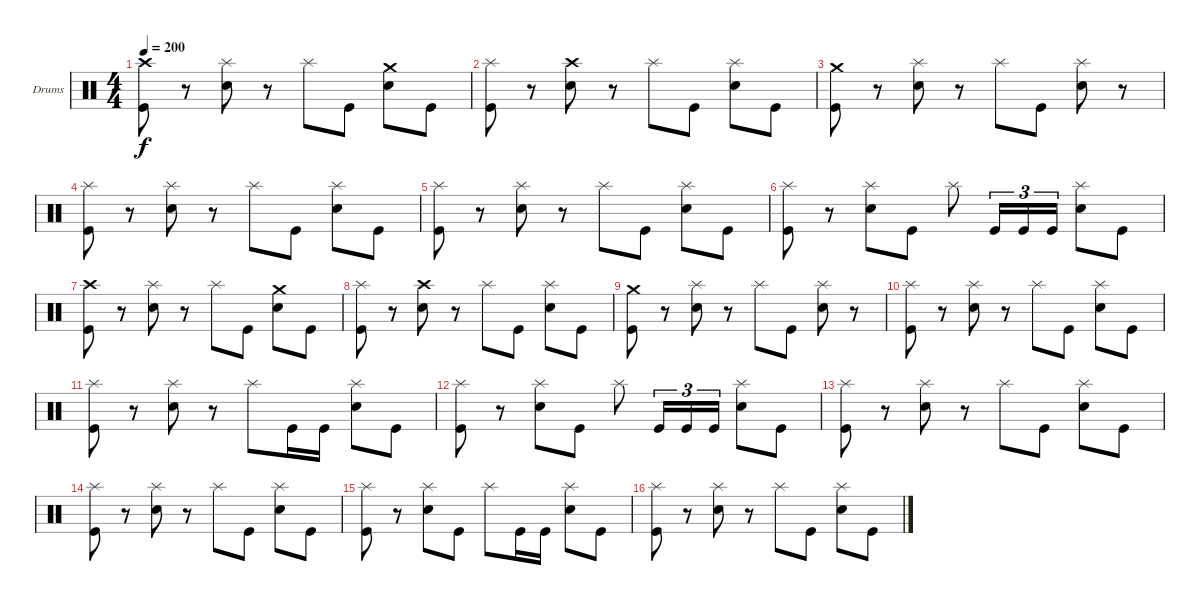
\bracketExtendMode groupsimilarinstruments
\firstSystemTrackNameOrientation horizontal
\otherSystemsTrackNameOrientation horizontal
\track ("Drumkit" "Drums") {instrument percussion}
\staff {score}
\articulation defaults
\ts (4 4)
\tempo 200
\clef neutral
\ks c
("Crash high (hit)" "Kick (hit)").8{dy f} r.8 ("Splash (hit)" "Snare (hit) 2").8 r.8 "Splash (hit)".8 "Kick (hit)".8 ("Crash medium (hit)" "Snare (hit) 2").8 "Kick (hit)".8 |
("Splash (hit)" "Kick (hit)").8 r.8 ("Crash high (hit)" "Snare (hit) 2").8 r.8 "Splash (hit)".8 "Kick (hit)".8 ("Splash (hit)" "Snare (hit) 2").8 "Kick (hit)".8 |
("Crash medium (hit)" "Kick (hit)").8 r.8 ("Splash (hit)" "Snare (hit) 2").8 r.8 "Splash (hit)".8 "Kick (hit)".8 ("Splash (hit)" "Snare (hit) 2").8 r.8 |
("Splash (hit)" "Kick (hit)").8 r.8 ("Splash (hit)" "Snare (hit) 2").8 r.8 "Splash (hit)".8 "Kick (hit)".8 ("Splash (hit)" "Snare (hit) 2").8 "Kick (hit)".8 |
("Splash (hit)" "Kick (hit)").8 r.8 ("Splash (hit)" "Snare (hit) 2").8 r.8 "Splash (hit)".8 "Kick (hit)".8 ("Splash (hit)" "Snare (hit) 2").8 "Kick (hit)".8 |
("Splash (hit)" "Kick (hit)").8 r.8 ("Splash (hit)" "Snare (hit) 2").8 "Kick (hit)".8 "Splash (hit)".8 "Kick (hit)".16{tu (3 2)} "Kick (hit)".16{tu (3 2)} "Kick (hit)".16{tu (3 2)} ("Splash (hit)" "Snare (hit) 2").8 "Kick (hit)".8 |
("Crash high (hit)" "Kick (hit)").8 r.8 ("Splash (hit)" "Snare (hit) 2").8 r.8 "Splash (hit)".8 "Kick (hit)".8 ("Crash medium (hit)" "Snare (hit) 2").8 "Kick (hit)".8 |
("Splash (hit)" "Kick (hit)").8 r.8 ("Crash high (hit)" "Snare (hit) 2").8 r.8 "Splash (hit)".8 "Kick (hit)".8 ("Splash (hit)" "Snare (hit) 2").8 "Kick (hit)".8 |
("Crash medium (hit)" "Kick (hit)").8 r.8 ("Splash (hit)" "Snare (hit) 2").8 r.8 "Splash (hit)".8 "Kick (hit)".8 ("Splash (hit)" "Snare (hit) 2").8 r.8 |
("Splash (hit)" "Kick (hit)").8 r.8 ("Splash (hit)" "Snare (hit) 2").8 r.8 "Splash (hit)".8 "Kick (hit)".8 ("Splash (hit)" "Snare (hit) 2").8 "Kick (hit)".8 |
("Splash (hit)" "Kick (hit)").8 r.8 ("Splash (hit)" "Snare (hit) 2").8 r.8 "Splash (hit)".8 "Kick (hit)".16 "Kick (hit)".16 ("Splash (hit)" "Snare (hit) 2").8 "Kick (hit)".8 |
("Splash (hit)" "Kick (hit)").8 r.8 ("Splash (hit)" "Snare (hit) 2").8 "Kick (hit)".8 "Splash (hit)".8 "Kick (hit)".16{tu (3 2)} "Kick (hit)".16{tu (3 2)} "Kick (hit)".16{tu (3 2)} ("Splash (hit)" "Snare (hit) 2").8 "Kick (hit)".8 |
("Splash (hit)" "Kick (hit)").8 r.8 ("Splash (hit)" "Snare (hit) 2").8 r.8 "Splash (hit)".8 "Kick (hit)".8 ("Splash (hit)" "Snare (hit) 2").8 "Kick (hit)".8 |
("Splash (hit)" "Kick (hit)").8 r.8 ("Splash (hit)" "Snare (hit) 2").8 r.8 "Splash (hit)".8 "Kick (hit)".8 ("Splash (hit)" "Snare (hit) 2").8 "Kick (hit)".8 |
("Splash (hit)" "Kick (hit)").8 r.8 ("Splash (hit)" "Snare (hit) 2").8 "Kick (hit)".8 "Splash (hit)".8 "Kick (hit)".16 "Kick (hit)".16 ("Splash (hit)" "Snare (hit) 2").8 "Kick (hit)".8 |
("Splash (hit)" "Kick (hit)").8 r.8 ("Splash (hit)" "Snare (hit) 2").8 r.8 "Splash (hit)".8 "Kick (hit)".8 ("Splash (hit)" "Snare (hit) 2").8 "Kick (hit)".8
